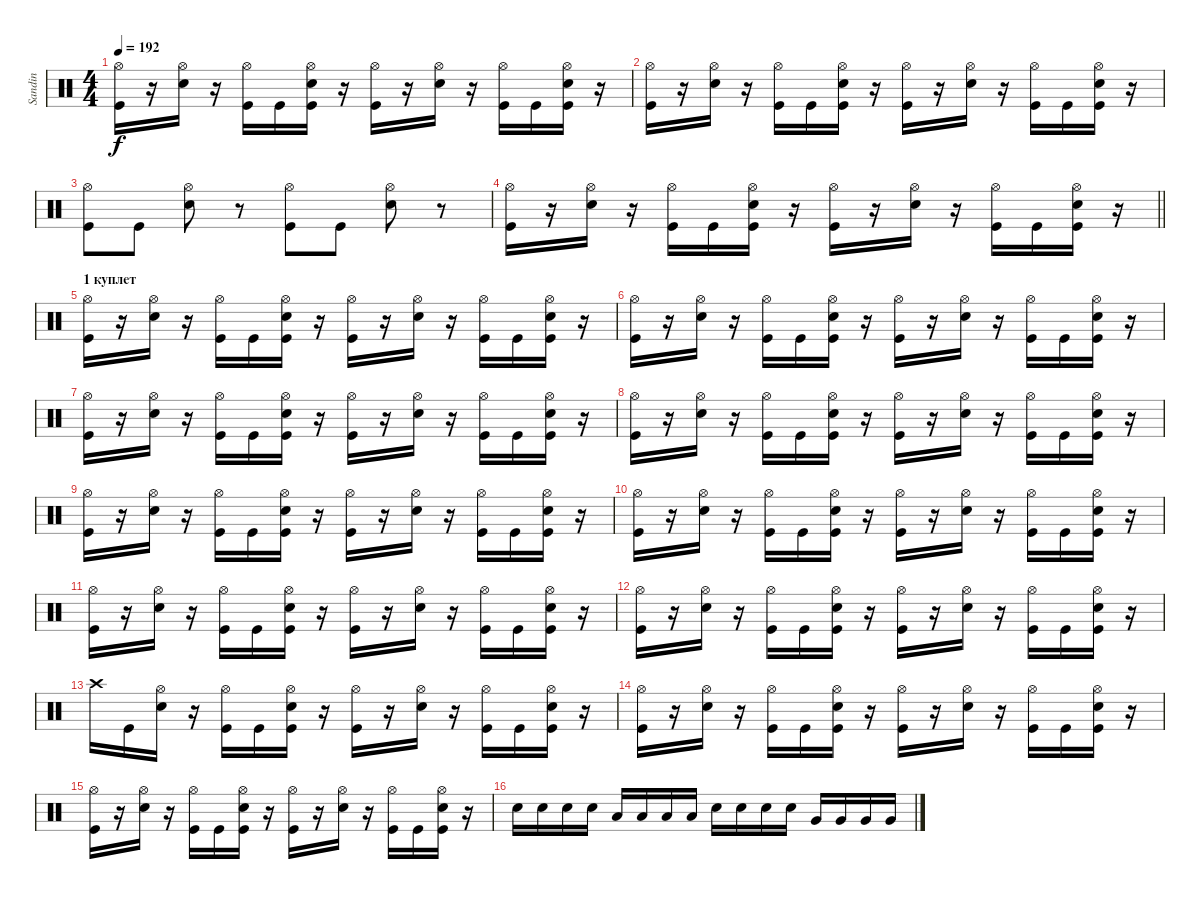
\track ("Sandin" "Sandin") {instrument percussion}
\staff {score}
\articulation defaults
\ts (4 4)
\tempo 192
\clef neutral
\ks c
("Hi-Hat (open)" "Kick (hit)").16{dy f} r.16 ("Hi-Hat (open)" "Electric Snare (hit)").16 r.16 ("Hi-Hat (open)" "Kick (hit)").16 "Kick (hit)".16 ("Hi-Hat (open)" "Electric Snare (hit)" "Kick (hit)").16 r.16 ("Hi-Hat (open)" "Kick (hit)").16 r.16 ("Hi-Hat (open)" "Electric Snare (hit)").16 r.16 ("Hi-Hat (open)" "Kick (hit)").16 "Kick (hit)".16 ("Hi-Hat (open)" "Electric Snare (hit)" "Kick (hit)").16 r.16 |
("Hi-Hat (open)" "Kick (hit)").16 r.16 ("Hi-Hat (open)" "Electric Snare (hit)").16 r.16 ("Hi-Hat (open)" "Kick (hit)").16 "Kick (hit)".16 ("Hi-Hat (open)" "Electric Snare (hit)" "Kick (hit)").16 r.16 ("Hi-Hat (open)" "Kick (hit)").16 r.16 ("Hi-Hat (open)" "Electric Snare (hit)").16 r.16 ("Hi-Hat (open)" "Kick (hit)").16 "Kick (hit)".16 ("Hi-Hat (open)" "Electric Snare (hit)" "Kick (hit)").16 r.16 |
("Hi-Hat (open)" "Kick (hit)").8 "Kick (hit)".8 ("Hi-Hat (open)" "Electric Snare (hit)").8 r.8 ("Hi-Hat (open)" "Kick (hit)").8 "Kick (hit)".8 ("Hi-Hat (open)" "Electric Snare (hit)").8 r.8 |
\barLineRight lightlight
("Hi-Hat (open)" "Kick (hit)").16 r.16 ("Hi-Hat (open)" "Electric Snare (hit)").16 r.16 ("Hi-Hat (open)" "Kick (hit)").16 "Kick (hit)".16 ("Hi-Hat (open)" "Electric Snare (hit)" "Kick (hit)").16 r.16 ("Hi-Hat (open)" "Kick (hit)").16 r.16 ("Hi-Hat (open)" "Electric Snare (hit)").16 r.16 ("Hi-Hat (open)" "Kick (hit)").16 "Kick (hit)".16 ("Hi-Hat (open)" "Electric Snare (hit)" "Kick (hit)").16 r.16 |
\section ("" "1 куплет")
("Hi-Hat (open)" "Kick (hit)").16 r.16 ("Hi-Hat (open)" "Electric Snare (hit)").16 r.16 ("Hi-Hat (open)" "Kick (hit)").16 "Kick (hit)".16 ("Hi-Hat (open)" "Electric Snare (hit)" "Kick (hit)").16 r.16 ("Hi-Hat (open)" "Kick (hit)").16 r.16 ("Hi-Hat (open)" "Electric Snare (hit)").16 r.16 ("Hi-Hat (open)" "Kick (hit)").16 "Kick (hit)".16 ("Hi-Hat (open)" "Electric Snare (hit)" "Kick (hit)").16 r.16 |
("Hi-Hat (open)" "Kick (hit)").16 r.16 ("Hi-Hat (open)" "Electric Snare (hit)").16 r.16 ("Hi-Hat (open)" "Kick (hit)").16 "Kick (hit)".16 ("Hi-Hat (open)" "Electric Snare (hit)" "Kick (hit)").16 r.16 ("Hi-Hat (open)" "Kick (hit)").16 r.16 ("Hi-Hat (open)" "Electric Snare (hit)").16 r.16 ("Hi-Hat (open)" "Kick (hit)").16 "Kick (hit)".16 ("Hi-Hat (open)" "Electric Snare (hit)" "Kick (hit)").16 r.16 |
("Hi-Hat (open)" "Kick (hit)").16 r.16 ("Hi-Hat (open)" "Electric Snare (hit)").16 r.16 ("Hi-Hat (open)" "Kick (hit)").16 "Kick (hit)".16 ("Hi-Hat (open)" "Electric Snare (hit)" "Kick (hit)").16 r.16 ("Hi-Hat (open)" "Kick (hit)").16 r.16 ("Hi-Hat (open)" "Electric Snare (hit)").16 r.16 ("Hi-Hat (open)" "Kick (hit)").16 "Kick (hit)".16 ("Hi-Hat (open)" "Electric Snare (hit)" "Kick (hit)").16 r.16 |
("Hi-Hat (open)" "Kick (hit)").16 r.16 ("Hi-Hat (open)" "Electric Snare (hit)").16 r.16 ("Hi-Hat (open)" "Kick (hit)").16 "Kick (hit)".16 ("Hi-Hat (open)" "Electric Snare (hit)" "Kick (hit)").16 r.16 ("Hi-Hat (open)" "Kick (hit)").16 r.16 ("Hi-Hat (open)" "Electric Snare (hit)").16 r.16 ("Hi-Hat (open)" "Kick (hit)").16 "Kick (hit)".16 ("Hi-Hat (open)" "Electric Snare (hit)" "Kick (hit)").16 r.16 |
("Hi-Hat (open)" "Kick (hit)").16 r.16 ("Hi-Hat (open)" "Electric Snare (hit)").16 r.16 ("Hi-Hat (open)" "Kick (hit)").16 "Kick (hit)".16 ("Hi-Hat (open)" "Electric Snare (hit)" "Kick (hit)").16 r.16 ("Hi-Hat (open)" "Kick (hit)").16 r.16 ("Hi-Hat (open)" "Electric Snare (hit)").16 r.16 ("Hi-Hat (open)" "Kick (hit)").16 "Kick (hit)".16 ("Hi-Hat (open)" "Electric Snare (hit)" "Kick (hit)").16 r.16 |
("Hi-Hat (open)" "Kick (hit)").16 r.16 ("Hi-Hat (open)" "Electric Snare (hit)").16 r.16 ("Hi-Hat (open)" "Kick (hit)").16 "Kick (hit)".16 ("Hi-Hat (open)" "Electric Snare (hit)" "Kick (hit)").16 r.16 ("Hi-Hat (open)" "Kick (hit)").16 r.16 ("Hi-Hat (open)" "Electric Snare (hit)").16 r.16 ("Hi-Hat (open)" "Kick (hit)").16 "Kick (hit)".16 ("Hi-Hat (open)" "Electric Snare (hit)" "Kick (hit)").16 r.16 |
("Hi-Hat (open)" "Kick (hit)").16 r.16 ("Hi-Hat (open)" "Electric Snare (hit)").16 r.16 ("Hi-Hat (open)" "Kick (hit)").16 "Kick (hit)".16 ("Hi-Hat (open)" "Electric Snare (hit)" "Kick (hit)").16 r.16 ("Hi-Hat (open)" "Kick (hit)").16 r.16 ("Hi-Hat (open)" "Electric Snare (hit)").16 r.16 ("Hi-Hat (open)" "Kick (hit)").16 "Kick (hit)".16 ("Hi-Hat (open)" "Electric Snare (hit)" "Kick (hit)").16 r.16 |
("Hi-Hat (open)" "Kick (hit)").16 r.16 ("Hi-Hat (open)" "Electric Snare (hit)").16 r.16 ("Hi-Hat (open)" "Kick (hit)").16 "Kick (hit)".16 ("Hi-Hat (open)" "Electric Snare (hit)" "Kick (hit)").16 r.16 ("Hi-Hat (open)" "Kick (hit)").16 r.16 ("Hi-Hat (open)" "Electric Snare (hit)").16 r.16 ("Hi-Hat (open)" "Kick (hit)").16 "Kick (hit)".16 ("Hi-Hat (open)" "Electric Snare (hit)" "Kick (hit)").16 r.16 |
"Crash high (hit)".16 "Kick (hit)".16 ("Hi-Hat (open)" "Electric Snare (hit)").16 r.16 ("Hi-Hat (open)" "Kick (hit)").16 "Kick (hit)".16 ("Hi-Hat (open)" "Electric Snare (hit)" "Kick (hit)").16 r.16 ("Hi-Hat (open)" "Kick (hit)").16 r.16 ("Hi-Hat (open)" "Electric Snare (hit)").16 r.16 ("Hi-Hat (open)" "Kick (hit)").16 "Kick (hit)".16 ("Hi-Hat (open)" "Electric Snare (hit)" "Kick (hit)").16 r.16 |
("Hi-Hat (open)" "Kick (hit)").16 r.16 ("Hi-Hat (open)" "Electric Snare (hit)").16 r.16 ("Hi-Hat (open)" "Kick (hit)").16 "Kick (hit)".16 ("Hi-Hat (open)" "Electric Snare (hit)" "Kick (hit)").16 r.16 ("Hi-Hat (open)" "Kick (hit)").16 r.16 ("Hi-Hat (open)" "Electric Snare (hit)").16 r.16 ("Hi-Hat (open)" "Kick (hit)").16 "Kick (hit)".16 ("Hi-Hat (open)" "Electric Snare (hit)" "Kick (hit)").16 r.16 |
("Hi-Hat (open)" "Kick (hit)").16 r.16 ("Hi-Hat (open)" "Electric Snare (hit)").16 r.16 ("Hi-Hat (open)" "Kick (hit)").16 "Kick (hit)".16 ("Hi-Hat (open)" "Electric Snare (hit)" "Kick (hit)").16 r.16 ("Hi-Hat (open)" "Kick (hit)").16 r.16 ("Hi-Hat (open)" "Electric Snare (hit)").16 r.16 ("Hi-Hat (open)" "Kick (hit)").16 "Kick (hit)".16 ("Hi-Hat (open)" "Electric Snare (hit)" "Kick (hit)").16 r.16 |
"Electric Snare (hit)".16 "Electric Snare (hit)".16 "Electric Snare (hit)".16 "Electric Snare (hit)".16 "Low Tom (hit)".16 "Low Tom (hit)".16 "Low Tom (hit)".16 "Low Tom (hit)".16 "Electric Snare (hit)".16 "Electric Snare (hit)".16 "Electric Snare (hit)".16 "Electric Snare (hit)".16 "Very Low Tom (hit)".16 "Very Low Tom (hit)".16 "Very Low Tom (hit)".16 "Very Low Tom (hit)".16
